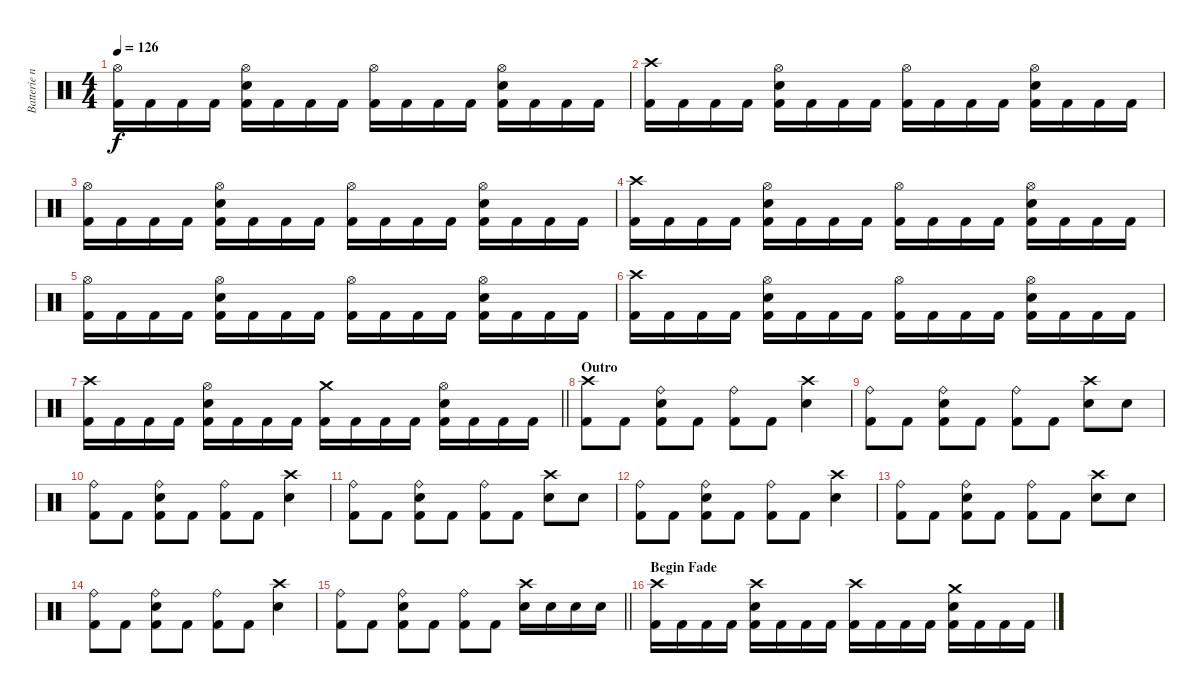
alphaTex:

\track ("Batterie n°3" "Batterie n") {instrument percussion}
\staff {score}
\articulation defaults
\ts (4 4)
\tempo 126
\clef neutral
\ks c
("Hi-Hat (open)" "Kick (hit) 2").16{dy f} "Kick (hit) 2".16 "Kick (hit) 2".16 "Kick (hit) 2".16 ("Hi-Hat (open)" "Snare (hit) 2" "Kick (hit) 2").16 "Kick (hit) 2".16 "Kick (hit) 2".16 "Kick (hit) 2".16 ("Hi-Hat (open)" "Kick (hit) 2").16 "Kick (hit) 2".16 "Kick (hit) 2".16 "Kick (hit) 2".16 ("Hi-Hat (open)" "Snare (hit) 2" "Kick (hit) 2").16 "Kick (hit) 2".16 "Kick (hit) 2".16 "Kick (hit) 2".16 |
("Crash high (hit)" "Kick (hit) 2").16 "Kick (hit) 2".16 "Kick (hit) 2".16 "Kick (hit) 2".16 ("Hi-Hat (open)" "Snare (hit) 2" "Kick (hit) 2").16 "Kick (hit) 2".16 "Kick (hit) 2".16 "Kick (hit) 2".16 ("Hi-Hat (open)" "Kick (hit) 2").16 "Kick (hit) 2".16 "Kick (hit) 2".16 "Kick (hit) 2".16 ("Hi-Hat (open)" "Snare (hit) 2" "Kick (hit) 2").16 "Kick (hit) 2".16 "Kick (hit) 2".16 "Kick (hit) 2".16 |
("Hi-Hat (open)" "Kick (hit) 2").16 "Kick (hit) 2".16 "Kick (hit) 2".16 "Kick (hit) 2".16 ("Hi-Hat (open)" "Snare (hit) 2" "Kick (hit) 2").16 "Kick (hit) 2".16 "Kick (hit) 2".16 "Kick (hit) 2".16 ("Hi-Hat (open)" "Kick (hit) 2").16 "Kick (hit) 2".16 "Kick (hit) 2".16 "Kick (hit) 2".16 ("Hi-Hat (open)" "Snare (hit) 2" "Kick (hit) 2").16 "Kick (hit) 2".16 "Kick (hit) 2".16 "Kick (hit) 2".16 |
("Crash high (hit)" "Kick (hit) 2").16 "Kick (hit) 2".16 "Kick (hit) 2".16 "Kick (hit) 2".16 ("Hi-Hat (open)" "Snare (hit) 2" "Kick (hit) 2").16 "Kick (hit) 2".16 "Kick (hit) 2".16 "Kick (hit) 2".16 ("Hi-Hat (open)" "Kick (hit) 2").16 "Kick (hit) 2".16 "Kick (hit) 2".16 "Kick (hit) 2".16 ("Hi-Hat (open)" "Snare (hit) 2" "Kick (hit) 2").16 "Kick (hit) 2".16 "Kick (hit) 2".16 "Kick (hit) 2".16 |
("Hi-Hat (open)" "Kick (hit) 2").16 "Kick (hit) 2".16 "Kick (hit) 2".16 "Kick (hit) 2".16 ("Hi-Hat (open)" "Snare (hit) 2" "Kick (hit) 2").16 "Kick (hit) 2".16 "Kick (hit) 2".16 "Kick (hit) 2".16 ("Hi-Hat (open)" "Kick (hit) 2").16 "Kick (hit) 2".16 "Kick (hit) 2".16 "Kick (hit) 2".16 ("Hi-Hat (open)" "Snare (hit) 2" "Kick (hit) 2").16 "Kick (hit) 2".16 "Kick (hit) 2".16 "Kick (hit) 2".16 |
("Crash high (hit)" "Kick (hit) 2").16 "Kick (hit) 2".16 "Kick (hit) 2".16 "Kick (hit) 2".16 ("Hi-Hat (open)" "Snare (hit) 2" "Kick (hit) 2").16 "Kick (hit) 2".16 "Kick (hit) 2".16 "Kick (hit) 2".16 ("Hi-Hat (open)" "Kick (hit) 2").16 "Kick (hit) 2".16 "Kick (hit) 2".16 "Kick (hit) 2".16 ("Hi-Hat (open)" "Snare (hit) 2" "Kick (hit) 2").16 "Kick (hit) 2".16 "Kick (hit) 2".16 "Kick (hit) 2".16 |
\barLineRight lightlight
("Crash high (hit)" "Kick (hit) 2").16 "Kick (hit) 2".16 "Kick (hit) 2".16 "Kick (hit) 2".16 ("Hi-Hat (open)" "Snare (hit) 2" "Kick (hit) 2").16 "Kick (hit) 2".16 "Kick (hit) 2".16 "Kick (hit) 2".16 ("Crash medium (hit)" "Kick (hit) 2").16 "Kick (hit) 2".16 "Kick (hit) 2".16 "Kick (hit) 2".16 ("Hi-Hat (open)" "Snare (hit) 2" "Kick (hit) 2").16 "Kick (hit) 2".16 "Kick (hit) 2".16 "Kick (hit) 2".16 |
\section ("" "Outro")
("Crash high (hit)" "Kick (hit) 2").8 "Kick (hit) 2".8 ("Ride (bell)" "Snare (hit) 2" "Kick (hit) 2").8 "Kick (hit) 2".8 ("Ride (bell)" "Kick (hit) 2").8 "Kick (hit) 2".8 ("Crash high (hit)" "Snare (hit) 2").4 |
("Ride (bell)" "Kick (hit) 2").8 "Kick (hit) 2".8 ("Ride (bell)" "Snare (hit) 2" "Kick (hit) 2").8 "Kick (hit) 2".8 ("Ride (bell)" "Kick (hit) 2").8 "Kick (hit) 2".8 ("Crash high (hit)" "Snare (hit) 2").8 "Snare (hit) 2".8 |
("Ride (bell)" "Kick (hit) 2").8 "Kick (hit) 2".8 ("Ride (bell)" "Snare (hit) 2" "Kick (hit) 2").8 "Kick (hit) 2".8 ("Ride (bell)" "Kick (hit) 2").8 "Kick (hit) 2".8 ("Crash high (hit)" "Snare (hit) 2").4 |
("Ride (bell)" "Kick (hit) 2").8 "Kick (hit) 2".8 ("Ride (bell)" "Snare (hit) 2" "Kick (hit) 2").8 "Kick (hit) 2".8 ("Ride (bell)" "Kick (hit) 2").8 "Kick (hit) 2".8 ("Crash high (hit)" "Snare (hit) 2").8 "Snare (hit) 2".8 |
("Ride (bell)" "Kick (hit) 2").8 "Kick (hit) 2".8 ("Ride (bell)" "Snare (hit) 2" "Kick (hit) 2").8 "Kick (hit) 2".8 ("Ride (bell)" "Kick (hit) 2").8 "Kick (hit) 2".8 ("Crash high (hit)" "Snare (hit) 2").4 |
("Ride (bell)" "Kick (hit) 2").8 "Kick (hit) 2".8 ("Ride (bell)" "Snare (hit) 2" "Kick (hit) 2").8 "Kick (hit) 2".8 ("Ride (bell)" "Kick (hit) 2").8 "Kick (hit) 2".8 ("Crash high (hit)" "Snare (hit) 2").8 "Snare (hit) 2".8 |
("Ride (bell)" "Kick (hit) 2").8 "Kick (hit) 2".8 ("Ride (bell)" "Snare (hit) 2" "Kick (hit) 2").8 "Kick (hit) 2".8 ("Ride (bell)" "Kick (hit) 2").8 "Kick (hit) 2".8 ("Crash high (hit)" "Snare (hit) 2").4 |
\barLineRight lightlight
("Ride (bell)" "Kick (hit) 2").8 "Kick (hit) 2".8 ("Ride (bell)" "Snare (hit) 2" "Kick (hit) 2").8 "Kick (hit) 2".8 ("Ride (bell)" "Kick (hit) 2").8 "Kick (hit) 2".8 ("Crash high (hit)" "Snare (hit) 2").16 "Snare (hit) 2".16 "Snare (hit) 2".16 "Snare (hit) 2".16 |
\section ("" "Begin Fade")
("Crash high (hit)" "Kick (hit) 2").16 "Kick (hit) 2".16 "Kick (hit) 2".16 "Kick (hit) 2".16 ("Crash high (hit)" "Snare (hit) 2" "Kick (hit) 2").16 "Kick (hit) 2".16 "Kick (hit) 2".16 "Kick (hit) 2".16 ("Crash high (hit)" "Kick (hit) 2").16 "Kick (hit) 2".16 "Kick (hit) 2".16 "Kick (hit) 2".16 ("Crash medium (hit)" "Snare (hit) 2" "Kick (hit) 2").16 "Kick (hit) 2".16 "Kick (hit) 2".16 "Kick (hit) 2".16
